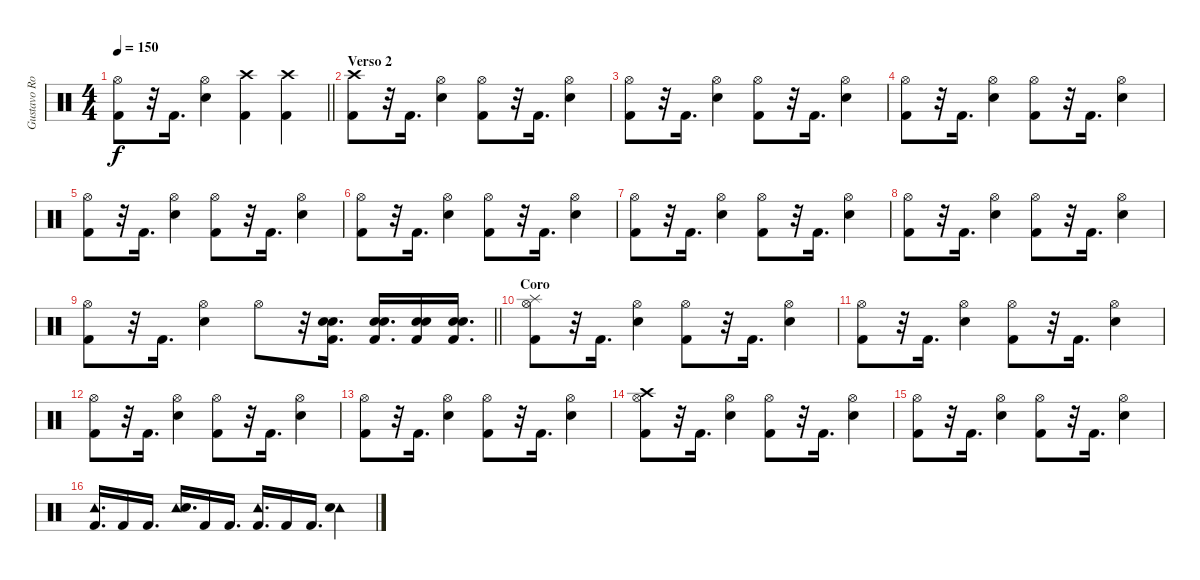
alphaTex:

\track ("Gustavo Rowek" "Gustavo Ro") {instrument percussion}
\staff {score}
\articulation defaults
\ts (4 4)
\tempo 150
\clef neutral
\barLineRight lightlight
\ks c
("Hi-Hat (open)" "Kick (hit) 2").8{dy f} r.32 "Kick (hit) 2".16{d} ("Hi-Hat (open)" "Electric Snare (hit)").4 ("Crash high (hit)" "Kick (hit) 2").4 ("Crash high (hit)" "Kick (hit) 2").4 |
\section ("" "Verso 2")
("Crash high (hit)" "Kick (hit) 2").8 r.32 "Kick (hit) 2".16{d} ("Hi-Hat (open)" "Electric Snare (hit)").4 ("Hi-Hat (open)" "Kick (hit) 2").8 r.32 "Kick (hit) 2".16{d} ("Hi-Hat (open)" "Electric Snare (hit)").4 |
("Hi-Hat (open)" "Kick (hit) 2").8 r.32 "Kick (hit) 2".16{d} ("Hi-Hat (open)" "Electric Snare (hit)").4 ("Hi-Hat (open)" "Kick (hit) 2").8 r.32 "Kick (hit) 2".16{d} ("Hi-Hat (open)" "Electric Snare (hit)").4 |
("Hi-Hat (open)" "Kick (hit) 2").8 r.32 "Kick (hit) 2".16{d} ("Hi-Hat (open)" "Electric Snare (hit)").4 ("Hi-Hat (open)" "Kick (hit) 2").8 r.32 "Kick (hit) 2".16{d} ("Hi-Hat (open)" "Electric Snare (hit)").4 |
("Hi-Hat (open)" "Kick (hit) 2").8 r.32 "Kick (hit) 2".16{d} ("Hi-Hat (open)" "Electric Snare (hit)").4 ("Hi-Hat (open)" "Kick (hit) 2").8 r.32 "Kick (hit) 2".16{d} ("Hi-Hat (open)" "Electric Snare (hit)").4 |
("Hi-Hat (open)" "Kick (hit) 2").8 r.32 "Kick (hit) 2".16{d} ("Hi-Hat (open)" "Electric Snare (hit)").4 ("Hi-Hat (open)" "Kick (hit) 2").8 r.32 "Kick (hit) 2".16{d} ("Hi-Hat (open)" "Electric Snare (hit)").4 |
("Hi-Hat (open)" "Kick (hit) 2").8 r.32 "Kick (hit) 2".16{d} ("Hi-Hat (open)" "Electric Snare (hit)").4 ("Hi-Hat (open)" "Kick (hit) 2").8 r.32 "Kick (hit) 2".16{d} ("Hi-Hat (open)" "Electric Snare (hit)").4 |
("Hi-Hat (open)" "Kick (hit) 2").8 r.32 "Kick (hit) 2".16{d} ("Hi-Hat (open)" "Electric Snare (hit)").4 ("Hi-Hat (open)" "Kick (hit) 2").8 r.32 "Kick (hit) 2".16{d} ("Hi-Hat (open)" "Electric Snare (hit)").4 |
\barLineRight lightlight
("Hi-Hat (open)" "Kick (hit) 2").8 r.32 "Kick (hit) 2".16{d} ("Hi-Hat (open)" "Electric Snare (hit)").4 "Hi-Hat (open)".8 r.32 ("Snare (hit) 2" "Electric Snare (hit)" "Kick (hit) 2").16{d} ("Snare (hit) 2" "Electric Snare (hit)" "Kick (hit) 2").16{d} ("Snare (hit) 2" "Electric Snare (hit)" "Kick (hit) 2").16 ("Snare (hit) 2" "Electric Snare (hit)" "Kick (hit) 2").16{d} |
\section ("" "Coro")
("Splash (hit)" "Hi-Hat (open)" "Kick (hit) 2").8 r.32 "Kick (hit) 2".16{d} ("Hi-Hat (open)" "Electric Snare (hit)").4 ("Hi-Hat (open)" "Kick (hit) 2").8 r.32 "Kick (hit) 2".16{d} ("Hi-Hat (open)" "Electric Snare (hit)").4 |
("Hi-Hat (open)" "Kick (hit) 2").8 r.32 "Kick (hit) 2".16{d} ("Hi-Hat (open)" "Electric Snare (hit)").4 ("Hi-Hat (open)" "Kick (hit) 2").8 r.32 "Kick (hit) 2".16{d} ("Hi-Hat (open)" "Electric Snare (hit)").4 |
("Hi-Hat (open)" "Kick (hit) 2").8 r.32 "Kick (hit) 2".16{d} ("Hi-Hat (open)" "Electric Snare (hit)").4 ("Hi-Hat (open)" "Kick (hit) 2").8 r.32 "Kick (hit) 2".16{d} ("Hi-Hat (open)" "Electric Snare (hit)").4 |
("Hi-Hat (open)" "Kick (hit) 2").8 r.32 "Kick (hit) 2".16{d} ("Hi-Hat (open)" "Electric Snare (hit)").4 ("Hi-Hat (open)" "Kick (hit) 2").8 r.32 "Kick (hit) 2".16{d} ("Hi-Hat (open)" "Electric Snare (hit)").4 |
("Crash high (hit)" "Hi-Hat (open)" "Kick (hit) 2").8 r.32 "Kick (hit) 2".16{d} ("Hi-Hat (open)" "Electric Snare (hit)").4 ("Hi-Hat (open)" "Kick (hit) 2").8 r.32 "Kick (hit) 2".16{d} ("Hi-Hat (open)" "Electric Snare (hit)").4 |
("Hi-Hat (open)" "Kick (hit) 2").8 r.32 "Kick (hit) 2".16{d} ("Hi-Hat (open)" "Electric Snare (hit)").4 ("Hi-Hat (open)" "Kick (hit) 2").8 r.32 "Kick (hit) 2".16{d} ("Hi-Hat (open)" "Electric Snare (hit)").4 |
("Tambourine (hit)" "Kick (hit) 2").16{d} "Kick (hit) 2".16 "Kick (hit) 2".16{d} ("Tambourine (hit)" "Electric Snare (hit)").16{d} "Kick (hit) 2".16 "Kick (hit) 2".16{d} ("Tambourine (hit)" "Kick (hit) 2").16{d} "Kick (hit) 2".16 "Kick (hit) 2".16{d} ("Tambourine (hit)" "Electric Snare (hit)").4
